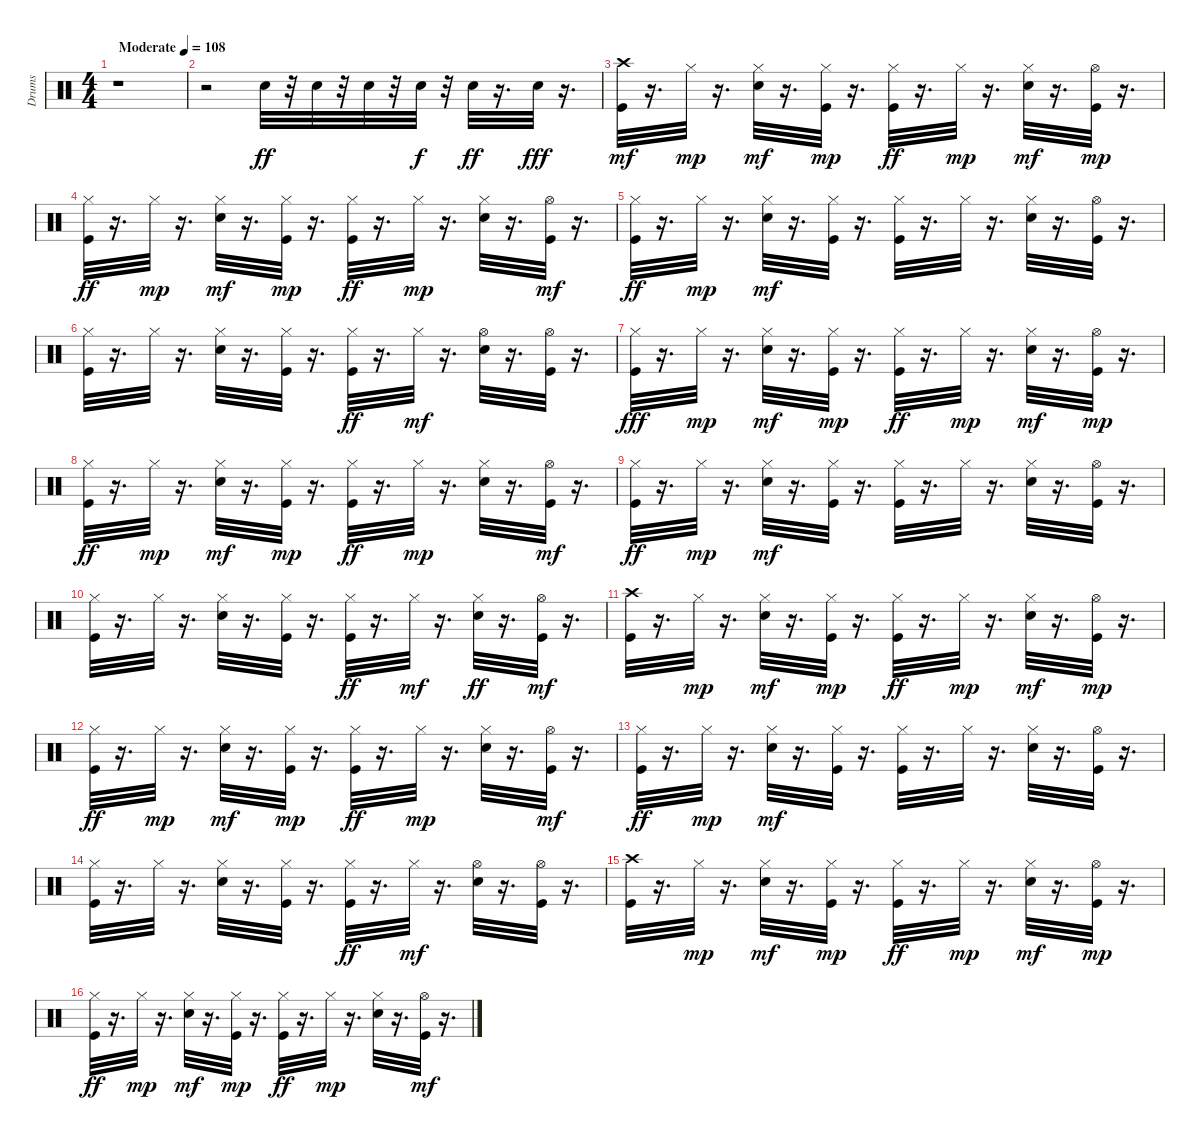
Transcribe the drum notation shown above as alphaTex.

\track ("Drums" "Drums") {instrument percussion}
\staff {score}
\articulation defaults
\ts (4 4)
\tempo (108 "Moderate")
\clef neutral
\ks c
r.1{dy ff} |
r.2 "Electric Snare (hit)".32 r.32 "Electric Snare (hit)".32 r.32 "Electric Snare (hit)".32 r.32 "Electric Snare (hit)".32{dy f} r.32 "Electric Snare (hit)".32{dy ff} r.16{d} "Electric Snare (hit)".32{dy fff} r.16{d} |
("Kick (hit)" "Crash high (hit)").32{dy mf} r.16{d} "Hi-Hat (closed)".32{dy mp} r.16{d} ("Electric Snare (hit)" "Hi-Hat (closed)").32{dy mf} r.16{d} ("Kick (hit)" "Hi-Hat (closed)").32{dy mp} r.16{d} ("Kick (hit)" "Hi-Hat (closed)").32{dy ff} r.16{d} "Hi-Hat (closed)".32{dy mp} r.16{d} ("Electric Snare (hit)" "Hi-Hat (closed)").32{dy mf} r.16{d} ("Kick (hit)" "Hi-Hat (open)").32{dy mp} r.16{d} |
("Kick (hit)" "Hi-Hat (closed)").32{dy ff} r.16{d} "Hi-Hat (closed)".32{dy mp} r.16{d} ("Electric Snare (hit)" "Hi-Hat (closed)").32{dy mf} r.16{d} ("Kick (hit)" "Hi-Hat (closed)").32{dy mp} r.16{d} ("Kick (hit)" "Hi-Hat (closed)").32{dy ff} r.16{d} "Hi-Hat (closed)".32{dy mp} r.16{d} ("Electric Snare (hit)" "Hi-Hat (closed)").32 r.16{d} ("Kick (hit)" "Hi-Hat (open)").32{dy mf} r.16{d} |
("Kick (hit)" "Hi-Hat (closed)").32{dy ff} r.16{d} "Hi-Hat (closed)".32{dy mp} r.16{d} ("Electric Snare (hit)" "Hi-Hat (closed)").32{dy mf} r.16{d} ("Kick (hit)" "Hi-Hat (closed)").32 r.16{d} ("Kick (hit)" "Hi-Hat (closed)").32 r.16{d} "Hi-Hat (closed)".32 r.16{d} ("Electric Snare (hit)" "Hi-Hat (closed)").32 r.16{d} ("Kick (hit)" "Hi-Hat (open)").32 r.16{d} |
("Kick (hit)" "Hi-Hat (closed)").32 r.16{d} "Hi-Hat (closed)".32 r.16{d} ("Electric Snare (hit)" "Hi-Hat (closed)").32 r.16{d} ("Kick (hit)" "Hi-Hat (closed)").32 r.16{d} ("Kick (hit)" "Hi-Hat (closed)").32{dy ff} r.16{d} "Hi-Hat (closed)".32{dy mf} r.16{d} ("Electric Snare (hit)" "Hi-Hat (open)").32 r.16{d} ("Kick (hit)" "Hi-Hat (open)").32 r.16{d} |
("Kick (hit)" "Hi-Hat (closed)").32{dy fff} r.16{d} "Hi-Hat (closed)".32{dy mp} r.16{d} ("Electric Snare (hit)" "Hi-Hat (closed)").32{dy mf} r.16{d} ("Kick (hit)" "Hi-Hat (closed)").32{dy mp} r.16{d} ("Kick (hit)" "Hi-Hat (closed)").32{dy ff} r.16{d} "Hi-Hat (closed)".32{dy mp} r.16{d} ("Electric Snare (hit)" "Hi-Hat (closed)").32{dy mf} r.16{d} ("Kick (hit)" "Hi-Hat (open)").32{dy mp} r.16{d} |
("Kick (hit)" "Hi-Hat (closed)").32{dy ff} r.16{d} "Hi-Hat (closed)".32{dy mp} r.16{d} ("Electric Snare (hit)" "Hi-Hat (closed)").32{dy mf} r.16{d} ("Kick (hit)" "Hi-Hat (closed)").32{dy mp} r.16{d} ("Kick (hit)" "Hi-Hat (closed)").32{dy ff} r.16{d} "Hi-Hat (closed)".32{dy mp} r.16{d} ("Electric Snare (hit)" "Hi-Hat (closed)").32 r.16{d} ("Kick (hit)" "Hi-Hat (open)").32{dy mf} r.16{d} |
("Kick (hit)" "Hi-Hat (closed)").32{dy ff} r.16{d} "Hi-Hat (closed)".32{dy mp} r.16{d} ("Electric Snare (hit)" "Hi-Hat (closed)").32{dy mf} r.16{d} ("Kick (hit)" "Hi-Hat (closed)").32 r.16{d} ("Kick (hit)" "Hi-Hat (closed)").32 r.16{d} "Hi-Hat (closed)".32 r.16{d} ("Electric Snare (hit)" "Hi-Hat (closed)").32 r.16{d} ("Kick (hit)" "Hi-Hat (open)").32 r.16{d} |
("Kick (hit)" "Hi-Hat (closed)").32 r.16{d} "Hi-Hat (closed)".32 r.16{d} ("Electric Snare (hit)" "Hi-Hat (closed)").32 r.16{d} ("Kick (hit)" "Hi-Hat (closed)").32 r.16{d} ("Kick (hit)" "Hi-Hat (closed)").32{dy ff} r.16{d} "Hi-Hat (closed)".32{dy mf} r.16{d} ("Electric Snare (hit)" "Hi-Hat (closed)").32{dy ff} r.16{d} ("Kick (hit)" "Hi-Hat (open)").32{dy mf} r.16{d} |
("Kick (hit)" "Crash high (hit)").32 r.16{d} "Hi-Hat (closed)".32{dy mp} r.16{d} ("Electric Snare (hit)" "Hi-Hat (closed)").32{dy mf} r.16{d} ("Kick (hit)" "Hi-Hat (closed)").32{dy mp} r.16{d} ("Kick (hit)" "Hi-Hat (closed)").32{dy ff} r.16{d} "Hi-Hat (closed)".32{dy mp} r.16{d} ("Electric Snare (hit)" "Hi-Hat (closed)").32{dy mf} r.16{d} ("Kick (hit)" "Hi-Hat (open)").32{dy mp} r.16{d} |
("Kick (hit)" "Hi-Hat (closed)").32{dy ff} r.16{d} "Hi-Hat (closed)".32{dy mp} r.16{d} ("Electric Snare (hit)" "Hi-Hat (closed)").32{dy mf} r.16{d} ("Kick (hit)" "Hi-Hat (closed)").32{dy mp} r.16{d} ("Kick (hit)" "Hi-Hat (closed)").32{dy ff} r.16{d} "Hi-Hat (closed)".32{dy mp} r.16{d} ("Electric Snare (hit)" "Hi-Hat (closed)").32 r.16{d} ("Kick (hit)" "Hi-Hat (open)").32{dy mf} r.16{d} |
("Kick (hit)" "Hi-Hat (closed)").32{dy ff} r.16{d} "Hi-Hat (closed)".32{dy mp} r.16{d} ("Electric Snare (hit)" "Hi-Hat (closed)").32{dy mf} r.16{d} ("Kick (hit)" "Hi-Hat (closed)").32 r.16{d} ("Kick (hit)" "Hi-Hat (closed)").32 r.16{d} "Hi-Hat (closed)".32 r.16{d} ("Electric Snare (hit)" "Hi-Hat (closed)").32 r.16{d} ("Kick (hit)" "Hi-Hat (open)").32 r.16{d} |
("Kick (hit)" "Hi-Hat (closed)").32 r.16{d} "Hi-Hat (closed)".32 r.16{d} ("Electric Snare (hit)" "Hi-Hat (closed)").32 r.16{d} ("Kick (hit)" "Hi-Hat (closed)").32 r.16{d} ("Kick (hit)" "Hi-Hat (closed)").32{dy ff} r.16{d} "Hi-Hat (closed)".32{dy mf} r.16{d} ("Electric Snare (hit)" "Hi-Hat (open)").32 r.16{d} ("Kick (hit)" "Hi-Hat (open)").32 r.16{d} |
("Kick (hit)" "Crash high (hit)").32 r.16{d} "Hi-Hat (closed)".32{dy mp} r.16{d} ("Electric Snare (hit)" "Hi-Hat (closed)").32{dy mf} r.16{d} ("Kick (hit)" "Hi-Hat (closed)").32{dy mp} r.16{d} ("Kick (hit)" "Hi-Hat (closed)").32{dy ff} r.16{d} "Hi-Hat (closed)".32{dy mp} r.16{d} ("Electric Snare (hit)" "Hi-Hat (closed)").32{dy mf} r.16{d} ("Kick (hit)" "Hi-Hat (open)").32{dy mp} r.16{d} |
("Kick (hit)" "Hi-Hat (closed)").32{dy ff} r.16{d} "Hi-Hat (closed)".32{dy mp} r.16{d} ("Electric Snare (hit)" "Hi-Hat (closed)").32{dy mf} r.16{d} ("Kick (hit)" "Hi-Hat (closed)").32{dy mp} r.16{d} ("Kick (hit)" "Hi-Hat (closed)").32{dy ff} r.16{d} "Hi-Hat (closed)".32{dy mp} r.16{d} ("Electric Snare (hit)" "Hi-Hat (closed)").32 r.16{d} ("Kick (hit)" "Hi-Hat (open)").32{dy mf} r.16{d}
